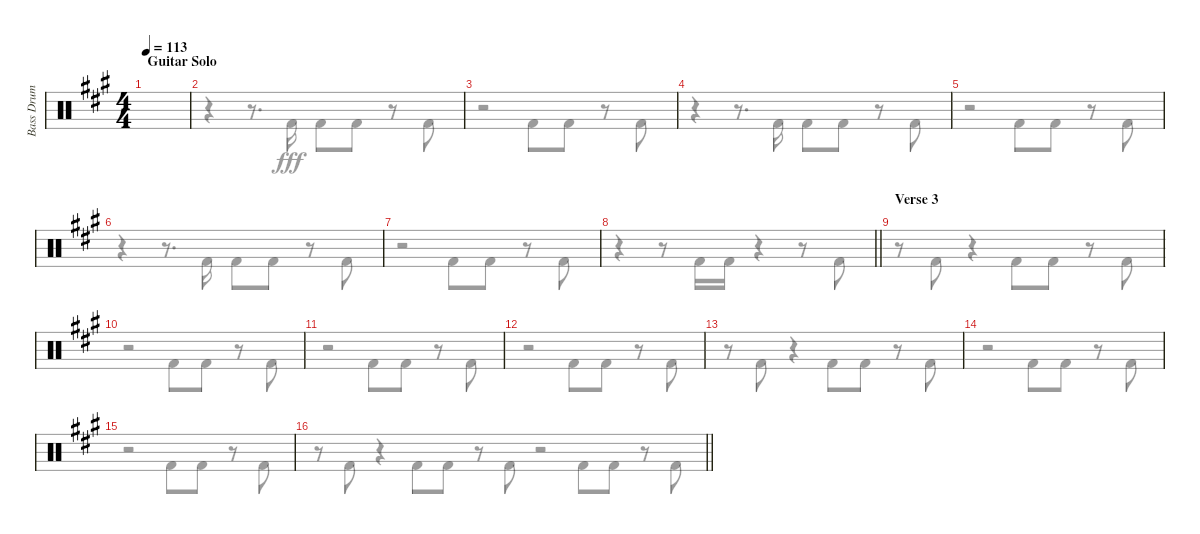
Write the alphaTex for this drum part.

\track ("Bass Drum" "Bass Drum") {instrument percussion}
\staff {score}
\articulation defaults
\voice
\ts (4 4)
\section ("" "Guitar Solo")
\tempo 113
\clef neutral
\ks f#minor
|
|
|
|
|
|
|
\barLineRight lightlight
|
\section ("" "Verse 3")
|
|
|
|
|
|
|
\barLineRight lightlight
\voice
\clef neutral
\ks f#minor
r.8{dy fff} "Kick (hit) 2".8 r.4 "Kick (hit) 2".8 "Kick (hit) 2".8 r.8 "Kick (hit) 2".8 |
r.4 r.8{d} "Kick (hit) 2".16 "Kick (hit) 2".8 "Kick (hit) 2".8 r.8 "Kick (hit) 2".8 |
r.2 "Kick (hit) 2".8 "Kick (hit) 2".8 r.8 "Kick (hit) 2".8 |
r.4 r.8{d} "Kick (hit) 2".16 "Kick (hit) 2".8 "Kick (hit) 2".8 r.8 "Kick (hit) 2".8 |
r.2 "Kick (hit) 2".8 "Kick (hit) 2".8 r.8 "Kick (hit) 2".8 |
r.4 r.8{d} "Kick (hit) 2".16 "Kick (hit) 2".8 "Kick (hit) 2".8 r.8 "Kick (hit) 2".8 |
r.2 "Kick (hit) 2".8 "Kick (hit) 2".8 r.8 "Kick (hit) 2".8 |
\barLineRight lightlight
r.4 r.8 "Kick (hit) 2".16 "Kick (hit) 2".16 r.4 r.8 "Kick (hit) 2".8 |
r.8 "Kick (hit) 2".8 r.4 "Kick (hit) 2".8 "Kick (hit) 2".8 r.8 "Kick (hit) 2".8 |
r.2 "Kick (hit) 2".8 "Kick (hit) 2".8 r.8 "Kick (hit) 2".8 |
r.2 "Kick (hit) 2".8 "Kick (hit) 2".8 r.8 "Kick (hit) 2".8 |
r.2 "Kick (hit) 2".8 "Kick (hit) 2".8 r.8 "Kick (hit) 2".8 |
r.8 "Kick (hit) 2".8 r.4 "Kick (hit) 2".8 "Kick (hit) 2".8 r.8 "Kick (hit) 2".8 |
r.2 "Kick (hit) 2".8 "Kick (hit) 2".8 r.8 "Kick (hit) 2".8 |
r.2 "Kick (hit) 2".8 "Kick (hit) 2".8 r.8 "Kick (hit) 2".8 |
\barLineRight lightlight
r.2 "Kick (hit) 2".8 "Kick (hit) 2".8 r.8 "Kick (hit) 2".8
